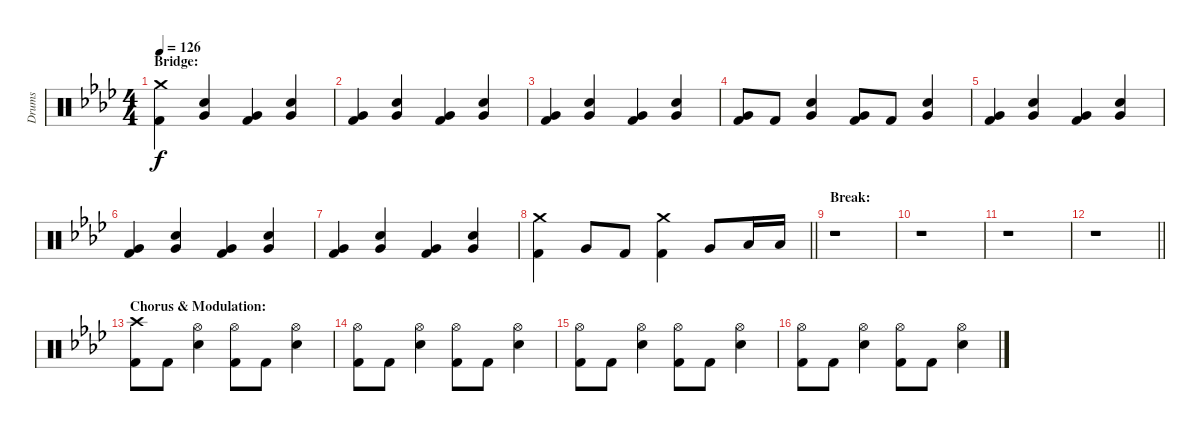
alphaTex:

\track ("Drums" "Drums") {instrument percussion}
\staff {score}
\articulation defaults
\ts (4 4)
\section ("" "Bridge:")
\tempo 126
\clef neutral
\ks fminor
("Crash medium (hit)" "Kick (hit) 2").4{dy f} ("Very Low Tom (hit)" "Electric Snare (hit)").4 ("Very Low Tom (hit)" "Kick (hit) 2").4 ("Very Low Tom (hit)" "Electric Snare (hit)").4 |
("Very Low Tom (hit)" "Kick (hit) 2").4 ("Very Low Tom (hit)" "Electric Snare (hit)").4 ("Very Low Tom (hit)" "Kick (hit) 2").4 ("Very Low Tom (hit)" "Electric Snare (hit)").4 |
("Very Low Tom (hit)" "Kick (hit) 2").4 ("Very Low Tom (hit)" "Electric Snare (hit)").4 ("Very Low Tom (hit)" "Kick (hit) 2").4 ("Very Low Tom (hit)" "Electric Snare (hit)").4 |
("Very Low Tom (hit)" "Kick (hit) 2").8 "Kick (hit) 2".8 ("Very Low Tom (hit)" "Electric Snare (hit)").4 ("Very Low Tom (hit)" "Kick (hit) 2").8 "Kick (hit) 2".8 ("Very Low Tom (hit)" "Electric Snare (hit)").4 |
("Very Low Tom (hit)" "Kick (hit) 2").4 ("Very Low Tom (hit)" "Electric Snare (hit)").4 ("Very Low Tom (hit)" "Kick (hit) 2").4 ("Very Low Tom (hit)" "Electric Snare (hit)").4 |
("Very Low Tom (hit)" "Kick (hit) 2").4 ("Very Low Tom (hit)" "Electric Snare (hit)").4 ("Very Low Tom (hit)" "Kick (hit) 2").4 ("Very Low Tom (hit)" "Electric Snare (hit)").4 |
("Very Low Tom (hit)" "Kick (hit) 2").4 ("Very Low Tom (hit)" "Electric Snare (hit)").4 ("Very Low Tom (hit)" "Kick (hit) 2").4 ("Very Low Tom (hit)" "Electric Snare (hit)").4 |
\barLineRight lightlight
("Crash medium (hit)" "Kick (hit) 2").4 "Very Low Tom (hit)".8 "Kick (hit) 2".8 ("Crash medium (hit)" "Kick (hit) 2").4 "Very Low Tom (hit)".8 "Low Floor Tom (hit)".16 "Low Floor Tom (hit)".16 |
\section ("" "Break:")
r.1 |
r.1 |
r.1 |
\barLineRight lightlight
r.1 |
\section ("" "Chorus & Modulation:")
("Crash high (hit)" "Kick (hit) 2").8 "Kick (hit) 2".8 ("Hi-Hat (open)" "Electric Snare (hit)").4 ("Hi-Hat (open)" "Kick (hit) 2").8 "Kick (hit) 2".8 ("Hi-Hat (open)" "Electric Snare (hit)").4 |
("Hi-Hat (open)" "Kick (hit) 2").8 "Kick (hit) 2".8 ("Hi-Hat (open)" "Electric Snare (hit)").4 ("Hi-Hat (open)" "Kick (hit) 2").8 "Kick (hit) 2".8 ("Hi-Hat (open)" "Electric Snare (hit)").4 |
("Hi-Hat (open)" "Kick (hit) 2").8 "Kick (hit) 2".8 ("Hi-Hat (open)" "Electric Snare (hit)").4 ("Hi-Hat (open)" "Kick (hit) 2").8 "Kick (hit) 2".8 ("Hi-Hat (open)" "Electric Snare (hit)").4 |
("Hi-Hat (open)" "Kick (hit) 2").8 "Kick (hit) 2".8 ("Hi-Hat (open)" "Electric Snare (hit)").4 ("Hi-Hat (open)" "Kick (hit) 2").8 "Kick (hit) 2".8 ("Hi-Hat (open)" "Electric Snare (hit)").4
